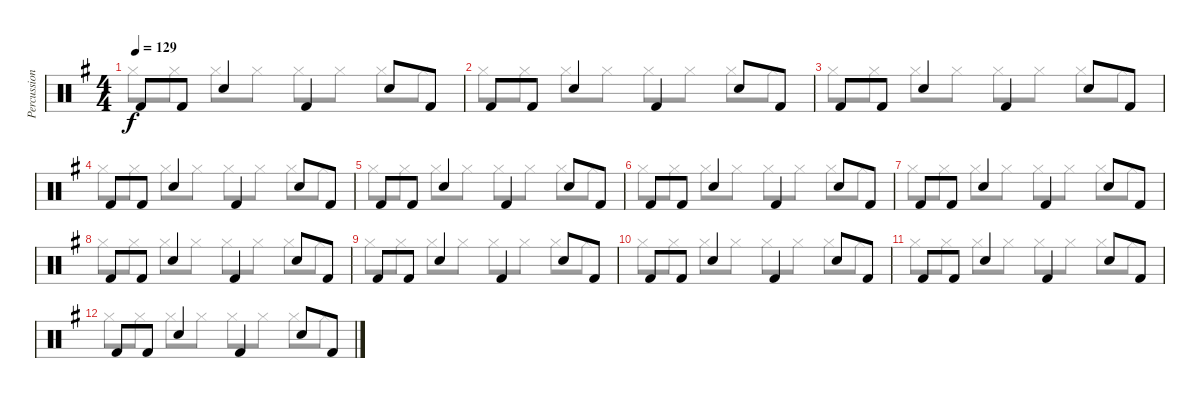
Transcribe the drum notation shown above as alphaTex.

\track ("Percussions" "Percussion") {instrument percussion}
\staff {score}
\articulation defaults
\voice
\ts (4 4)
\tempo 129
\clef neutral
\ks g "Kick (hit) 2".8{dy f} "Kick (hit) 2".8 "Electric Snare (hit)".4 "Kick (hit) 2".4 "Electric Snare (hit)".8 "Kick (hit) 2".8
|
"Kick (hit) 2".8 "Kick (hit) 2".8 "Electric Snare (hit)".4 "Kick (hit) 2".4 "Electric Snare (hit)".8 "Kick (hit) 2".8 |
"Kick (hit) 2".8 "Kick (hit) 2".8 "Electric Snare (hit)".4 "Kick (hit) 2".4 "Electric Snare (hit)".8 "Kick (hit) 2".8 |
"Kick (hit) 2".8 "Kick (hit) 2".8 "Electric Snare (hit)".4 "Kick (hit) 2".4 "Electric Snare (hit)".8 "Kick (hit) 2".8 |
"Kick (hit) 2".8 "Kick (hit) 2".8 "Electric Snare (hit)".4 "Kick (hit) 2".4 "Electric Snare (hit)".8 "Kick (hit) 2".8 |
"Kick (hit) 2".8 "Kick (hit) 2".8 "Electric Snare (hit)".4 "Kick (hit) 2".4 "Electric Snare (hit)".8 "Kick (hit) 2".8 |
"Kick (hit) 2".8 "Kick (hit) 2".8 "Electric Snare (hit)".4 "Kick (hit) 2".4 "Electric Snare (hit)".8 "Kick (hit) 2".8 |
"Kick (hit) 2".8 "Kick (hit) 2".8 "Electric Snare (hit)".4 "Kick (hit) 2".4 "Electric Snare (hit)".8 "Kick (hit) 2".8 |
"Kick (hit) 2".8 "Kick (hit) 2".8 "Electric Snare (hit)".4 "Kick (hit) 2".4 "Electric Snare (hit)".8 "Kick (hit) 2".8 |
"Kick (hit) 2".8 "Kick (hit) 2".8 "Electric Snare (hit)".4 "Kick (hit) 2".4 "Electric Snare (hit)".8 "Kick (hit) 2".8 |
"Kick (hit) 2".8 "Kick (hit) 2".8 "Electric Snare (hit)".4 "Kick (hit) 2".4 "Electric Snare (hit)".8 "Kick (hit) 2".8 |
"Kick (hit) 2".8 "Kick (hit) 2".8 "Electric Snare (hit)".4 "Kick (hit) 2".4 "Electric Snare (hit)".8 "Kick (hit) 2".8 |
\voice
\clef neutral
\ottava regular
\simile none
\ks g "Hi-Hat (closed)".8{dy f} "Hi-Hat (closed)".8 "Hi-Hat (closed)".8 "Hi-Hat (closed)".8 "Hi-Hat (closed)".8 "Hi-Hat (closed)".8 "Hi-Hat (closed)".8 "Hi-Hat (closed)".8
|
"Hi-Hat (closed)".8 "Hi-Hat (closed)".8 "Hi-Hat (closed)".8 "Hi-Hat (closed)".8 "Hi-Hat (closed)".8 "Hi-Hat (closed)".8 "Hi-Hat (closed)".8 "Hi-Hat (closed)".8 |
"Hi-Hat (closed)".8 "Hi-Hat (closed)".8 "Hi-Hat (closed)".8 "Hi-Hat (closed)".8 "Hi-Hat (closed)".8 "Hi-Hat (closed)".8 "Hi-Hat (closed)".8 "Hi-Hat (closed)".8 |
"Hi-Hat (closed)".8 "Hi-Hat (closed)".8 "Hi-Hat (closed)".8 "Hi-Hat (closed)".8 "Hi-Hat (closed)".8 "Hi-Hat (closed)".8 "Hi-Hat (closed)".8 "Hi-Hat (closed)".8 |
"Hi-Hat (closed)".8 "Hi-Hat (closed)".8 "Hi-Hat (closed)".8 "Hi-Hat (closed)".8 "Hi-Hat (closed)".8 "Hi-Hat (closed)".8 "Hi-Hat (closed)".8 "Hi-Hat (closed)".8 |
"Hi-Hat (closed)".8 "Hi-Hat (closed)".8 "Hi-Hat (closed)".8 "Hi-Hat (closed)".8 "Hi-Hat (closed)".8 "Hi-Hat (closed)".8 "Hi-Hat (closed)".8 "Hi-Hat (closed)".8 |
"Hi-Hat (closed)".8 "Hi-Hat (closed)".8 "Hi-Hat (closed)".8 "Hi-Hat (closed)".8 "Hi-Hat (closed)".8 "Hi-Hat (closed)".8 "Hi-Hat (closed)".8 "Hi-Hat (closed)".8 |
"Hi-Hat (closed)".8 "Hi-Hat (closed)".8 "Hi-Hat (closed)".8 "Hi-Hat (closed)".8 "Hi-Hat (closed)".8 "Hi-Hat (closed)".8 "Hi-Hat (closed)".8 "Hi-Hat (closed)".8 |
"Hi-Hat (closed)".8 "Hi-Hat (closed)".8 "Hi-Hat (closed)".8 "Hi-Hat (closed)".8 "Hi-Hat (closed)".8 "Hi-Hat (closed)".8 "Hi-Hat (closed)".8 "Hi-Hat (closed)".8 |
"Hi-Hat (closed)".8 "Hi-Hat (closed)".8 "Hi-Hat (closed)".8 "Hi-Hat (closed)".8 "Hi-Hat (closed)".8 "Hi-Hat (closed)".8 "Hi-Hat (closed)".8 "Hi-Hat (closed)".8 |
"Hi-Hat (closed)".8 "Hi-Hat (closed)".8 "Hi-Hat (closed)".8 "Hi-Hat (closed)".8 "Hi-Hat (closed)".8 "Hi-Hat (closed)".8 "Hi-Hat (closed)".8 "Hi-Hat (closed)".8 |
"Hi-Hat (closed)".8 "Hi-Hat (closed)".8 "Hi-Hat (closed)".8 "Hi-Hat (closed)".8 "Hi-Hat (closed)".8 "Hi-Hat (closed)".8 "Hi-Hat (closed)".8 "Hi-Hat (closed)".8 |
